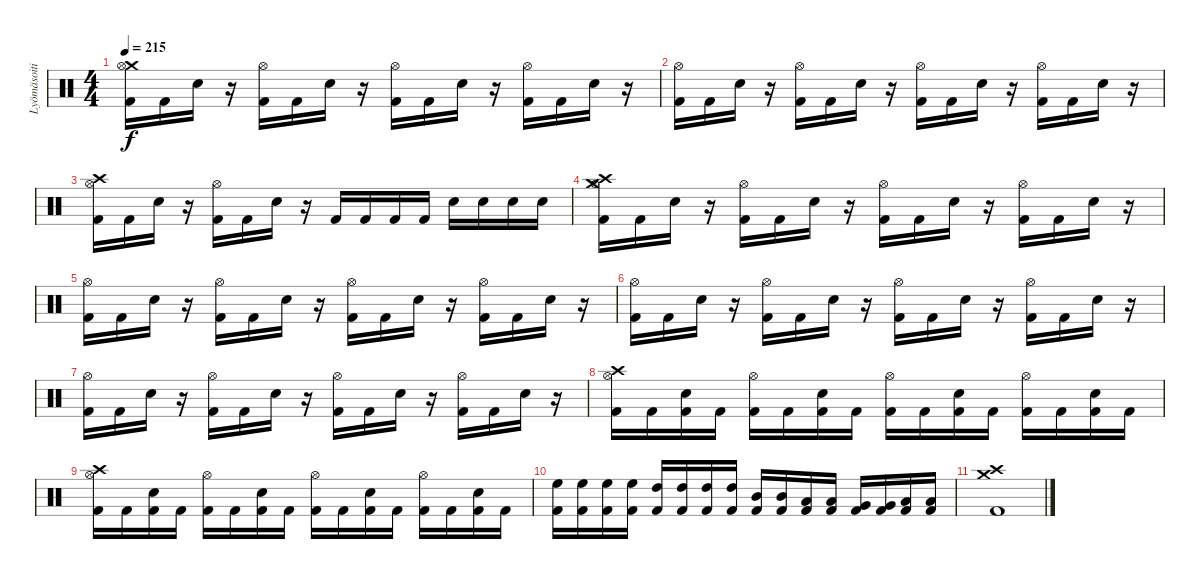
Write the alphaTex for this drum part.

\track ("Lyömäsoitin" "Lyömäsoiti") {instrument percussion}
\staff {score}
\articulation defaults
\ts (4 4)
\tempo 215
\clef neutral
\ks c
("Crash medium (hit)" "Hi-Hat (open)" "Kick (hit) 2").16{dy f} "Kick (hit) 2".16 "Electric Snare (hit)".16 r.16 ("Hi-Hat (open)" "Kick (hit) 2").16 "Kick (hit) 2".16 "Electric Snare (hit)".16 r.16 ("Hi-Hat (open)" "Kick (hit) 2").16 "Kick (hit) 2".16 "Electric Snare (hit)".16 r.16 ("Hi-Hat (open)" "Kick (hit) 2").16 "Kick (hit) 2".16 "Electric Snare (hit)".16 r.16 |
("Hi-Hat (open)" "Kick (hit) 2").16 "Kick (hit) 2".16 "Electric Snare (hit)".16 r.16 ("Hi-Hat (open)" "Kick (hit) 2").16 "Kick (hit) 2".16 "Electric Snare (hit)".16 r.16 ("Hi-Hat (open)" "Kick (hit) 2").16 "Kick (hit) 2".16 "Electric Snare (hit)".16 r.16 ("Hi-Hat (open)" "Kick (hit) 2").16 "Kick (hit) 2".16 "Electric Snare (hit)".16 r.16 |
("Crash high (hit)" "Hi-Hat (open)" "Kick (hit) 2").16 "Kick (hit) 2".16 "Electric Snare (hit)".16 r.16 ("Hi-Hat (open)" "Kick (hit) 2").16 "Kick (hit) 2".16 "Electric Snare (hit)".16 r.16 "Kick (hit) 2".16 "Kick (hit) 2".16 "Kick (hit) 2".16 "Kick (hit) 2".16 "Electric Snare (hit)".16 "Electric Snare (hit)".16 "Electric Snare (hit)".16 "Electric Snare (hit)".16 |
("Crash medium (hit)" "Crash high (hit)" "Hi-Hat (open)" "Kick (hit) 2").16 "Kick (hit) 2".16 "Electric Snare (hit)".16 r.16 ("Hi-Hat (open)" "Kick (hit) 2").16 "Kick (hit) 2".16 "Electric Snare (hit)".16 r.16 ("Hi-Hat (open)" "Kick (hit) 2").16 "Kick (hit) 2".16 "Electric Snare (hit)".16 r.16 ("Hi-Hat (open)" "Kick (hit) 2").16 "Kick (hit) 2".16 "Electric Snare (hit)".16 r.16 |
("Hi-Hat (open)" "Kick (hit) 2").16 "Kick (hit) 2".16 "Electric Snare (hit)".16 r.16 ("Hi-Hat (open)" "Kick (hit) 2").16 "Kick (hit) 2".16 "Electric Snare (hit)".16 r.16 ("Hi-Hat (open)" "Kick (hit) 2").16 "Kick (hit) 2".16 "Electric Snare (hit)".16 r.16 ("Hi-Hat (open)" "Kick (hit) 2").16 "Kick (hit) 2".16 "Electric Snare (hit)".16 r.16 |
("Hi-Hat (open)" "Kick (hit) 2").16 "Kick (hit) 2".16 "Electric Snare (hit)".16 r.16 ("Hi-Hat (open)" "Kick (hit) 2").16 "Kick (hit) 2".16 "Electric Snare (hit)".16 r.16 ("Hi-Hat (open)" "Kick (hit) 2").16 "Kick (hit) 2".16 "Electric Snare (hit)".16 r.16 ("Hi-Hat (open)" "Kick (hit) 2").16 "Kick (hit) 2".16 "Electric Snare (hit)".16 r.16 |
("Hi-Hat (open)" "Kick (hit) 2").16 "Kick (hit) 2".16 "Electric Snare (hit)".16 r.16 ("Hi-Hat (open)" "Kick (hit) 2").16 "Kick (hit) 2".16 "Electric Snare (hit)".16 r.16 ("Hi-Hat (open)" "Kick (hit) 2").16 "Kick (hit) 2".16 "Electric Snare (hit)".16 r.16 ("Hi-Hat (open)" "Kick (hit) 2").16 "Kick (hit) 2".16 "Electric Snare (hit)".16 r.16 |
("Crash high (hit)" "Hi-Hat (open)" "Kick (hit) 2").16 "Kick (hit) 2".16 ("Electric Snare (hit)" "Kick (hit) 2").16 "Kick (hit) 2".16 ("Hi-Hat (open)" "Kick (hit) 2").16 "Kick (hit) 2".16 ("Electric Snare (hit)" "Kick (hit) 2").16 "Kick (hit) 2".16 ("Hi-Hat (open)" "Kick (hit) 2").16 "Kick (hit) 2".16 ("Electric Snare (hit)" "Kick (hit) 2").16 "Kick (hit) 2".16 ("Hi-Hat (open)" "Kick (hit) 2").16 "Kick (hit) 2".16 ("Electric Snare (hit)" "Kick (hit) 2").16 "Kick (hit) 2".16 |
("Crash high (hit)" "Hi-Hat (open)" "Kick (hit) 2").16 "Kick (hit) 2".16 ("Electric Snare (hit)" "Kick (hit) 2").16 "Kick (hit) 2".16 ("Hi-Hat (open)" "Kick (hit) 2").16 "Kick (hit) 2".16 ("Electric Snare (hit)" "Kick (hit) 2").16 "Kick (hit) 2".16 ("Hi-Hat (open)" "Kick (hit) 2").16 "Kick (hit) 2".16 ("Electric Snare (hit)" "Kick (hit) 2").16 "Kick (hit) 2".16 ("Hi-Hat (open)" "Kick (hit) 2").16 "Kick (hit) 2".16 ("Electric Snare (hit)" "Kick (hit) 2").16 "Kick (hit) 2".16 |
("High Floor Tom (hit)" "Kick (hit) 2").16 ("High Floor Tom (hit)" "Kick (hit) 2").16 ("High Floor Tom (hit)" "Kick (hit) 2").16 ("High Floor Tom (hit)" "Kick (hit) 2").16 ("High Tom (hit)" "Kick (hit) 2").16 ("High Tom (hit)" "Kick (hit) 2").16 ("High Tom (hit)" "Kick (hit) 2").16 ("High Tom (hit)" "Kick (hit) 2").16 ("Mid Tom (hit)" "Kick (hit) 2").16 ("Mid Tom (hit)" "Kick (hit) 2").16 ("Low Tom (hit)" "Kick (hit) 2").16 ("Low Tom (hit)" "Kick (hit) 2").16 ("Very Low Tom (hit)" "Kick (hit) 2").16 ("Very Low Tom (hit)" "Kick (hit) 2").16 ("Low Floor Tom (hit)" "Kick (hit) 2").16 ("Low Floor Tom (hit)" "Kick (hit) 2").16 |
("Kick (hit) 2" "Crash high (hit)" "Crash medium (hit)").1
